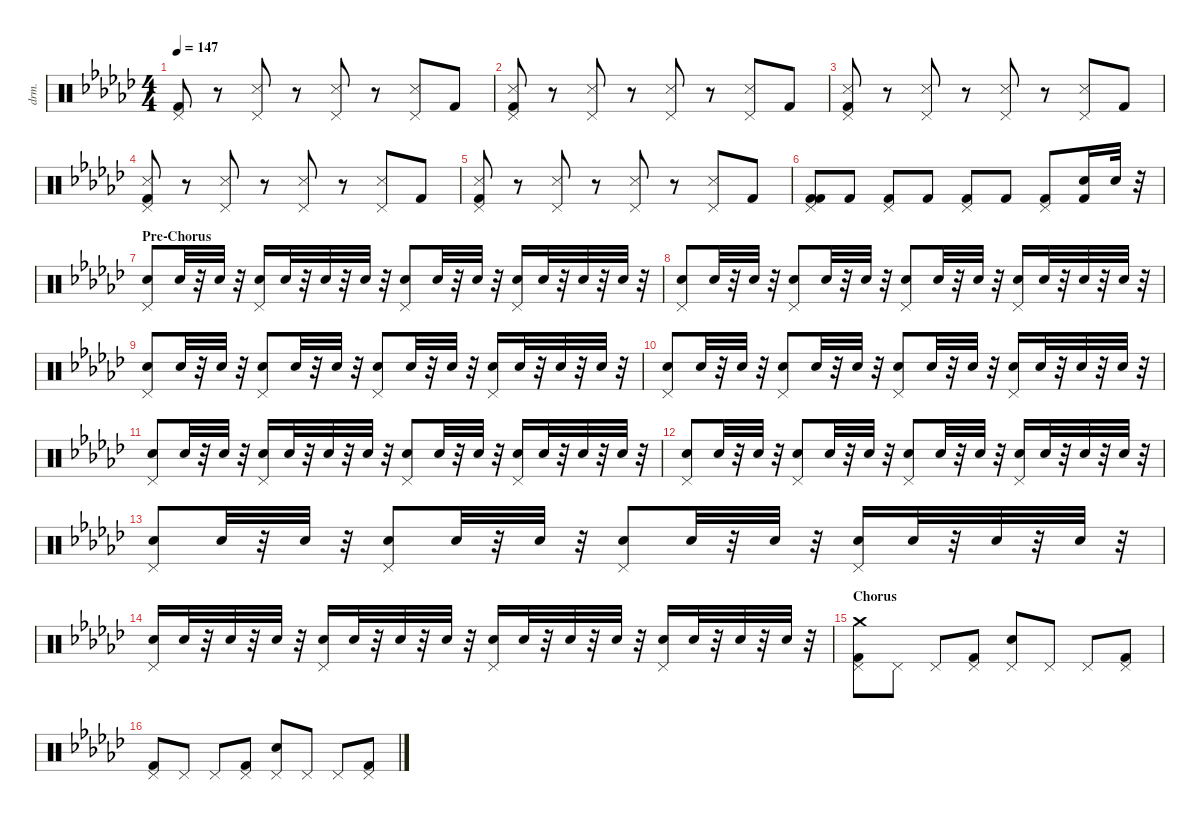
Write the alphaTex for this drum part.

\defaultSystemsLayout 4
\hideDynamics
\bracketExtendMode nobrackets
\otherSystemsTrackNameOrientation horizontal
\track ("Drums" "drm.") {instrument percussion}
\staff {score}
\articulation defaults
\ts (4 4)
\tempo 147
\clef neutral
\ks ebminor
("Pedal Hi-Hat (hit)"{acc forcenatural} "Kick (hit) 2"{acc forcenatural}).8{dy f beam Up} r.8{beam Up} ("Pedal Hi-Hat (hit)"{acc forcenatural} "Snare (side stick) 3"{acc forcenatural}).8{beam Up} r.8{beam Up} ("Pedal Hi-Hat (hit)"{acc forcenatural} "Snare (side stick) 3"{acc forcenatural}).8{beam Up} r.8{beam Up} ("Pedal Hi-Hat (hit)"{acc forcenatural} "Snare (side stick) 3"{acc forcenatural}).8{beam Up} "Kick (hit) 2"{acc forcenatural}.8{beam Up} |
("Pedal Hi-Hat (hit)"{acc forcenatural} "Kick (hit) 2"{acc forcenatural} "Snare (side stick) 3"{acc forcenatural}).8{beam Up} r.8{beam Up} ("Pedal Hi-Hat (hit)"{acc forcenatural} "Snare (side stick) 3"{acc forcenatural}).8{beam Up} r.8{beam Up} ("Pedal Hi-Hat (hit)"{acc forcenatural} "Snare (side stick) 3"{acc forcenatural}).8{beam Up} r.8{beam Up} ("Pedal Hi-Hat (hit)"{acc forcenatural} "Snare (side stick) 3"{acc forcenatural}).8{beam Up} "Kick (hit) 2"{acc forcenatural}.8{beam Up} |
("Pedal Hi-Hat (hit)"{acc forcenatural} "Kick (hit) 2"{acc forcenatural} "Snare (side stick) 3"{acc forcenatural}).8{beam Up} r.8{beam Up} ("Pedal Hi-Hat (hit)"{acc forcenatural} "Snare (side stick) 3"{acc forcenatural}).8{beam Up} r.8{beam Up} ("Pedal Hi-Hat (hit)"{acc forcenatural} "Snare (side stick) 3"{acc forcenatural}).8{beam Up} r.8{beam Up} ("Pedal Hi-Hat (hit)"{acc forcenatural} "Snare (side stick) 3"{acc forcenatural}).8{beam Up} "Kick (hit) 2"{acc forcenatural}.8{beam Up} |
("Pedal Hi-Hat (hit)"{acc forcenatural} "Kick (hit) 2"{acc forcenatural} "Snare (side stick) 3"{acc forcenatural}).8{beam Up} r.8{beam Up} ("Pedal Hi-Hat (hit)"{acc forcenatural} "Snare (side stick) 3"{acc forcenatural}).8{beam Up} r.8{beam Up} ("Pedal Hi-Hat (hit)"{acc forcenatural} "Snare (side stick) 3"{acc forcenatural}).8{beam Up} r.8{beam Up} ("Pedal Hi-Hat (hit)"{acc forcenatural} "Snare (side stick) 3"{acc forcenatural}).8{beam Up} "Kick (hit) 2"{acc forcenatural}.8{beam Up} |
("Pedal Hi-Hat (hit)"{acc forcenatural} "Kick (hit) 2"{acc forcenatural} "Snare (side stick) 3"{acc forcenatural}).8{beam Up} r.8{beam Up} ("Pedal Hi-Hat (hit)"{acc forcenatural} "Snare (side stick) 3"{acc forcenatural}).8{beam Up} r.8{beam Up} ("Pedal Hi-Hat (hit)"{acc forcenatural} "Snare (side stick) 3"{acc forcenatural}).8{beam Up} r.8{beam Up} ("Pedal Hi-Hat (hit)"{acc forcenatural} "Snare (side stick) 3"{acc forcenatural}).8{beam Up} "Kick (hit) 2"{acc forcenatural}.8{beam Up} |
("Pedal Hi-Hat (hit)"{acc forcenatural} "Kick (hit) 2"{acc forcenatural} "Kick (hit) 2"{acc forcenatural}).8{beam Up} "Kick (hit) 2"{acc forcenatural}.8{dy mf beam Up} ("Pedal Hi-Hat (hit)"{acc forcenatural} "Kick (hit) 2"{acc forcenatural}).8{dy f beam Up} "Kick (hit) 2"{acc forcenatural}.8{beam Up} ("Pedal Hi-Hat (hit)"{acc forcenatural} "Kick (hit) 2"{acc forcenatural}).8{beam Up} "Kick (hit) 2"{acc forcenatural}.8{dy ff beam Up} ("Pedal Hi-Hat (hit)"{acc forcenatural} "Kick (hit) 2"{acc forcenatural}).8{dy f beam Up} ("Kick (hit) 2"{acc forcenatural} "Snare (hit) 2"{acc forcenatural}).16{dy fff beam Up} "Snare (hit) 2"{acc forcenatural}.32{dy mf beam Up} r.32{beam Up} |
\section ("" "Pre-Chorus")
("Pedal Hi-Hat (hit)"{acc forcenatural} "Snare (hit) 2"{acc forcenatural}).8{dy f beam Up} "Snare (hit) 2"{acc forcenatural}.32{dy mf beam Up} r.32{beam Up} "Snare (hit) 2"{acc forcenatural}.32{beam Up} r.32{beam Up} ("Pedal Hi-Hat (hit)"{acc forcenatural} "Snare (hit) 2"{acc forcenatural}).16{dy f beam Up} "Snare (hit) 2"{acc forcenatural}.32{dy mf beam Up} r.32{beam Up} "Snare (hit) 2"{acc forcenatural}.32{beam Up} r.32{beam Up} "Snare (hit) 2"{acc forcenatural}.32{beam Up} r.32{beam Up} ("Pedal Hi-Hat (hit)"{acc forcenatural} "Snare (hit) 2"{acc forcenatural}).8{dy f beam Up} "Snare (hit) 2"{acc forcenatural}.32{dy mf beam Up} r.32{beam Up} "Snare (hit) 2"{acc forcenatural}.32{beam Up} r.32{beam Up} ("Pedal Hi-Hat (hit)"{acc forcenatural} "Snare (hit) 2"{acc forcenatural}).16{dy f beam Up} "Snare (hit) 2"{acc forcenatural}.32{dy mf beam Up} r.32{beam Up} "Snare (hit) 2"{acc forcenatural}.32{beam Up} r.32{beam Up} "Snare (hit) 2"{acc forcenatural}.32{beam Up} r.32{beam Up} |
("Pedal Hi-Hat (hit)"{acc forcenatural} "Snare (hit) 2"{acc forcenatural}).8{dy f beam Up} "Snare (hit) 2"{acc forcenatural}.32{dy mf beam Up} r.32{beam Up} "Snare (hit) 2"{acc forcenatural}.32{beam Up} r.32{beam Up} ("Pedal Hi-Hat (hit)"{acc forcenatural} "Snare (hit) 2"{acc forcenatural}).8{dy f beam Up} "Snare (hit) 2"{acc forcenatural}.32{dy mf beam Up} r.32{beam Up} "Snare (hit) 2"{acc forcenatural}.32{beam Up} r.32{beam Up} ("Pedal Hi-Hat (hit)"{acc forcenatural} "Snare (hit) 2"{acc forcenatural}).8{dy f beam Up} "Snare (hit) 2"{acc forcenatural}.32{dy mf beam Up} r.32{beam Up} "Snare (hit) 2"{acc forcenatural}.32{beam Up} r.32{beam Up} ("Pedal Hi-Hat (hit)"{acc forcenatural} "Snare (hit) 2"{acc forcenatural}).16{dy f beam Up} "Snare (hit) 2"{acc forcenatural}.32{dy mf beam Up} r.32{beam Up} "Snare (hit) 2"{acc forcenatural}.32{beam Up} r.32{beam Up} "Snare (hit) 2"{acc forcenatural}.32{beam Up} r.32{beam Up} |
("Pedal Hi-Hat (hit)"{acc forcenatural} "Snare (hit) 2"{acc forcenatural}).8{dy f beam Up} "Snare (hit) 2"{acc forcenatural}.32{dy mf beam Up} r.32{beam Up} "Snare (hit) 2"{acc forcenatural}.32{beam Up} r.32{beam Up} ("Pedal Hi-Hat (hit)"{acc forcenatural} "Snare (hit) 2"{acc forcenatural}).8{dy f beam Up} "Snare (hit) 2"{acc forcenatural}.32{dy mf beam Up} r.32{beam Up} "Snare (hit) 2"{acc forcenatural}.32{beam Up} r.32{beam Up} ("Pedal Hi-Hat (hit)"{acc forcenatural} "Snare (hit) 2"{acc forcenatural}).8{dy f beam Up} "Snare (hit) 2"{acc forcenatural}.32{dy mf beam Up} r.32{beam Up} "Snare (hit) 2"{acc forcenatural}.32{beam Up} r.32{beam Up} ("Pedal Hi-Hat (hit)"{acc forcenatural} "Snare (hit) 2"{acc forcenatural}).16{dy f beam Up} "Snare (hit) 2"{acc forcenatural}.32{dy mf beam Up} r.32{beam Up} "Snare (hit) 2"{acc forcenatural}.32{beam Up} r.32{beam Up} "Snare (hit) 2"{acc forcenatural}.32{beam Up} r.32{beam Up} |
("Pedal Hi-Hat (hit)"{acc forcenatural} "Snare (hit) 2"{acc forcenatural}).8{dy f beam Up} "Snare (hit) 2"{acc forcenatural}.32{dy mf beam Up} r.32{beam Up} "Snare (hit) 2"{acc forcenatural}.32{beam Up} r.32{beam Up} ("Pedal Hi-Hat (hit)"{acc forcenatural} "Snare (hit) 2"{acc forcenatural}).8{dy f beam Up} "Snare (hit) 2"{acc forcenatural}.32{dy mf beam Up} r.32{beam Up} "Snare (hit) 2"{acc forcenatural}.32{beam Up} r.32{beam Up} ("Pedal Hi-Hat (hit)"{acc forcenatural} "Snare (hit) 2"{acc forcenatural}).8{dy f beam Up} "Snare (hit) 2"{acc forcenatural}.32{dy mf beam Up} r.32{beam Up} "Snare (hit) 2"{acc forcenatural}.32{beam Up} r.32{beam Up} ("Pedal Hi-Hat (hit)"{acc forcenatural} "Snare (hit) 2"{acc forcenatural}).16{dy f beam Up} "Snare (hit) 2"{acc forcenatural}.32{dy mf beam Up} r.32{beam Up} "Snare (hit) 2"{acc forcenatural}.32{beam Up} r.32{beam Up} "Snare (hit) 2"{acc forcenatural}.32{beam Up} r.32{beam Up} |
("Pedal Hi-Hat (hit)"{acc forcenatural} "Snare (hit) 2"{acc forcenatural}).8{dy f beam Up} "Snare (hit) 2"{acc forcenatural}.32{dy mf beam Up} r.32{beam Up} "Snare (hit) 2"{acc forcenatural}.32{beam Up} r.32{beam Up} ("Pedal Hi-Hat (hit)"{acc forcenatural} "Snare (hit) 2"{acc forcenatural}).16{dy f beam Up} "Snare (hit) 2"{acc forcenatural}.32{dy mf beam Up} r.32{beam Up} "Snare (hit) 2"{acc forcenatural}.32{beam Up} r.32{beam Up} "Snare (hit) 2"{acc forcenatural}.32{beam Up} r.32{beam Up} ("Pedal Hi-Hat (hit)"{acc forcenatural} "Snare (hit) 2"{acc forcenatural}).8{dy f beam Up} "Snare (hit) 2"{acc forcenatural}.32{dy mf beam Up} r.32{beam Up} "Snare (hit) 2"{acc forcenatural}.32{beam Up} r.32{beam Up} ("Pedal Hi-Hat (hit)"{acc forcenatural} "Snare (hit) 2"{acc forcenatural}).16{dy f beam Up} "Snare (hit) 2"{acc forcenatural}.32{dy mf beam Up} r.32{beam Up} "Snare (hit) 2"{acc forcenatural}.32{beam Up} r.32{beam Up} "Snare (hit) 2"{acc forcenatural}.32{beam Up} r.32{beam Up} |
("Pedal Hi-Hat (hit)"{acc forcenatural} "Snare (hit) 2"{acc forcenatural}).8{dy f beam Up} "Snare (hit) 2"{acc forcenatural}.32{dy mf beam Up} r.32{beam Up} "Snare (hit) 2"{acc forcenatural}.32{beam Up} r.32{beam Up} ("Pedal Hi-Hat (hit)"{acc forcenatural} "Snare (hit) 2"{acc forcenatural}).8{dy f beam Up} "Snare (hit) 2"{acc forcenatural}.32{dy mf beam Up} r.32{beam Up} "Snare (hit) 2"{acc forcenatural}.32{beam Up} r.32{beam Up} ("Pedal Hi-Hat (hit)"{acc forcenatural} "Snare (hit) 2"{acc forcenatural}).8{dy f beam Up} "Snare (hit) 2"{acc forcenatural}.32{dy mf beam Up} r.32{beam Up} "Snare (hit) 2"{acc forcenatural}.32{beam Up} r.32{beam Up} ("Pedal Hi-Hat (hit)"{acc forcenatural} "Snare (hit) 2"{acc forcenatural}).16{dy f beam Up} "Snare (hit) 2"{acc forcenatural}.32{dy mf beam Up} r.32{beam Up} "Snare (hit) 2"{acc forcenatural}.32{beam Up} r.32{beam Up} "Snare (hit) 2"{acc forcenatural}.32{beam Up} r.32{beam Up} |
("Pedal Hi-Hat (hit)"{acc forcenatural} "Snare (hit) 2"{acc forcenatural}).8{dy f beam Up} "Snare (hit) 2"{acc forcenatural}.32{dy mf beam Up} r.32{beam Up} "Snare (hit) 2"{acc forcenatural}.32{beam Up} r.32{beam Up} ("Pedal Hi-Hat (hit)"{acc forcenatural} "Snare (hit) 2"{acc forcenatural}).8{dy f beam Up} "Snare (hit) 2"{acc forcenatural}.32{dy mf beam Up} r.32{beam Up} "Snare (hit) 2"{acc forcenatural}.32{beam Up} r.32{beam Up} ("Pedal Hi-Hat (hit)"{acc forcenatural} "Snare (hit) 2"{acc forcenatural}).8{dy f beam Up} "Snare (hit) 2"{acc forcenatural}.32{dy mf beam Up} r.32{beam Up} "Snare (hit) 2"{acc forcenatural}.32{beam Up} r.32{beam Up} ("Pedal Hi-Hat (hit)"{acc forcenatural} "Snare (hit) 2"{acc forcenatural}).16{dy f beam Up} "Snare (hit) 2"{acc forcenatural}.32{dy mf beam Up} r.32{beam Up} "Snare (hit) 2"{acc forcenatural}.32{beam Up} r.32{beam Up} "Snare (hit) 2"{acc forcenatural}.32{beam Up} r.32{beam Up} |
("Pedal Hi-Hat (hit)"{acc forcenatural} "Snare (hit) 2"{acc forcenatural}).16{dy f beam Up} "Snare (hit) 2"{acc forcenatural}.32{dy fff beam Up} r.32{beam Up} "Snare (hit) 2"{acc forcenatural}.32{dy mp beam Up} r.32{beam Up} "Snare (hit) 2"{acc forcenatural}.32{beam Up} r.32{beam Up} ("Pedal Hi-Hat (hit)"{acc forcenatural} "Snare (hit) 2"{acc forcenatural}).16{dy f beam Up} "Snare (hit) 2"{acc forcenatural}.32{dy mf beam Up} r.32{beam Up} "Snare (hit) 2"{acc forcenatural}.32{beam Up} r.32{beam Up} "Snare (hit) 2"{acc forcenatural}.32{beam Up} r.32{beam Up} ("Pedal Hi-Hat (hit)"{acc forcenatural} "Snare (hit) 2"{acc forcenatural}).16{dy f beam Up} "Snare (hit) 2"{acc forcenatural}.32{beam Up} r.32{beam Up} "Snare (hit) 2"{acc forcenatural}.32{beam Up} r.32{beam Up} "Snare (hit) 2"{acc forcenatural}.32{beam Up} r.32{beam Up} ("Pedal Hi-Hat (hit)"{acc forcenatural} "Snare (hit) 2"{acc forcenatural}).16{beam Up} "Snare (hit) 2"{acc forcenatural}.32{dy ff beam Up} r.32{beam Up} "Snare (hit) 2"{acc forcenatural}.32{beam Up} r.32{beam Up} "Snare (hit) 2"{acc forcenatural}.32{dy fff beam Up} r.32{beam Up} |
\section ("" "Chorus")
("Pedal Hi-Hat (hit)"{acc forcenatural} "Kick (hit) 2"{acc forcenatural} "Crash medium (hit)"{acc forcenatural}).8{dy f beam Down} "Pedal Hi-Hat (hit)"{acc forcenatural}.8{dy mp beam Down} "Pedal Hi-Hat (hit)"{acc forcenatural}.8{dy f beam Up} ("Pedal Hi-Hat (hit)"{acc forcenatural} "Kick (hit) 2"{acc forcenatural}).8{dy mp beam Up} ("Pedal Hi-Hat (hit)"{acc forcenatural} "Snare (hit) 2"{acc forcenatural}).8{dy f beam Up} "Pedal Hi-Hat (hit)"{acc forcenatural}.8{dy mp beam Up} "Pedal Hi-Hat (hit)"{acc forcenatural}.8{dy f beam Up} ("Pedal Hi-Hat (hit)"{acc forcenatural} "Kick (hit) 2"{acc forcenatural}).8{dy mp beam Up} |
("Pedal Hi-Hat (hit)"{acc forcenatural} "Kick (hit) 2"{acc forcenatural}).8{dy f beam Up} "Pedal Hi-Hat (hit)"{acc forcenatural}.8{dy mp beam Up} "Pedal Hi-Hat (hit)"{acc forcenatural}.8{dy f beam Up} ("Pedal Hi-Hat (hit)"{acc forcenatural} "Kick (hit) 2"{acc forcenatural}).8{dy mp beam Up} ("Pedal Hi-Hat (hit)"{acc forcenatural} "Snare (hit) 2"{acc forcenatural}).8{dy f beam Up} "Pedal Hi-Hat (hit)"{acc forcenatural}.8{dy mp beam Up} "Pedal Hi-Hat (hit)"{acc forcenatural}.8{dy f beam Up} ("Pedal Hi-Hat (hit)"{acc forcenatural} "Kick (hit) 2"{acc forcenatural}).8{dy mp beam Up}
